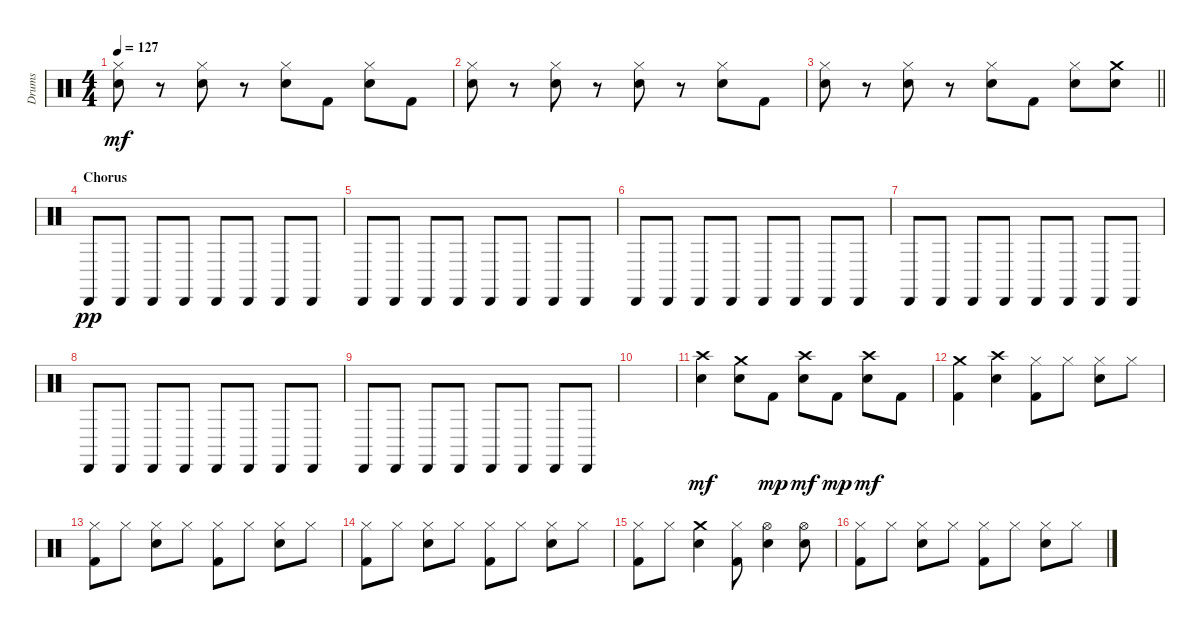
\track ("Drums" "Drums") {instrument percussion}
\staff {score}
\articulation defaults
\ts (4 4)
\tempo 127
\clef neutral
\ks c
("Hi-Hat (closed)" "Electric Snare (hit)").8{dy mf} r.8 ("Hi-Hat (closed)" "Electric Snare (hit)").8 r.8 ("Hi-Hat (closed)" "Electric Snare (hit)").8 "Kick (hit) 2".8 ("Hi-Hat (closed)" "Electric Snare (hit)").8 "Kick (hit) 2".8 |
("Hi-Hat (closed)" "Electric Snare (hit)").8 r.8 ("Hi-Hat (closed)" "Electric Snare (hit)").8 r.8 ("Hi-Hat (closed)" "Electric Snare (hit)").8 r.8 ("Hi-Hat (closed)" "Electric Snare (hit)").8 "Kick (hit) 2".8 |
\barLineRight lightlight
("Hi-Hat (closed)" "Electric Snare (hit)").8 r.8 ("Hi-Hat (closed)" "Electric Snare (hit)").8 r.8 ("Hi-Hat (closed)" "Electric Snare (hit)").8 "Kick (hit) 2".8 ("Hi-Hat (closed)" "Electric Snare (hit)").8 ("Crash medium (hit)" "Electric Snare (hit)").8 |
\section ("" "Chorus")
"Cabasa (hit)".8{dy pp} "Cabasa (hit)".8 "Cabasa (hit)".8 "Cabasa (hit)".8 "Cabasa (hit)".8 "Cabasa (hit)".8 "Cabasa (hit)".8 "Cabasa (hit)".8 |
"Cabasa (hit)".8 "Cabasa (hit)".8 "Cabasa (hit)".8 "Cabasa (hit)".8 "Cabasa (hit)".8 "Cabasa (hit)".8 "Cabasa (hit)".8 "Cabasa (hit)".8 |
"Cabasa (hit)".8 "Cabasa (hit)".8 "Cabasa (hit)".8 "Cabasa (hit)".8 "Cabasa (hit)".8 "Cabasa (hit)".8 "Cabasa (hit)".8 "Cabasa (hit)".8 |
"Cabasa (hit)".8 "Cabasa (hit)".8 "Cabasa (hit)".8 "Cabasa (hit)".8 "Cabasa (hit)".8 "Cabasa (hit)".8 "Cabasa (hit)".8 "Cabasa (hit)".8 |
"Cabasa (hit)".8 "Cabasa (hit)".8 "Cabasa (hit)".8 "Cabasa (hit)".8 "Cabasa (hit)".8 "Cabasa (hit)".8 "Cabasa (hit)".8 "Cabasa (hit)".8 |
"Cabasa (hit)".8 "Cabasa (hit)".8 "Cabasa (hit)".8 "Cabasa (hit)".8 "Cabasa (hit)".8 "Cabasa (hit)".8 "Cabasa (hit)".8 "Cabasa (hit)".8 |
|
("Crash high (hit)" "Electric Snare (hit)").4{dy mf} ("Crash medium (hit)" "Electric Snare (hit)").8 "Kick (hit) 2".8{dy mp} ("Crash high (hit)" "Electric Snare (hit)").8{dy mf} "Kick (hit) 2".8{dy mp} ("Crash high (hit)" "Electric Snare (hit)").8{dy mf} "Kick (hit) 2".8 |
("Crash medium (hit)" "Kick (hit) 2").4 ("Crash high (hit)" "Electric Snare (hit)").4 ("Hi-Hat (closed)" "Kick (hit) 2").8 "Hi-Hat (closed)".8 ("Hi-Hat (closed)" "Electric Snare (hit)").8 "Hi-Hat (closed)".8 |
("Hi-Hat (closed)" "Kick (hit) 2").8 "Hi-Hat (closed)".8 ("Hi-Hat (closed)" "Electric Snare (hit)").8 "Hi-Hat (closed)".8 ("Hi-Hat (closed)" "Kick (hit) 2").8 "Hi-Hat (closed)".8 ("Hi-Hat (closed)" "Electric Snare (hit)").8 "Hi-Hat (closed)".8 |
("Hi-Hat (closed)" "Kick (hit) 2").8 "Hi-Hat (closed)".8 ("Hi-Hat (closed)" "Electric Snare (hit)").8 "Hi-Hat (closed)".8 ("Hi-Hat (closed)" "Kick (hit) 2").8 "Hi-Hat (closed)".8 ("Hi-Hat (closed)" "Electric Snare (hit)").8 "Hi-Hat (closed)".8 |
("Hi-Hat (closed)" "Kick (hit) 2").8 "Hi-Hat (closed)".8 ("Crash medium (hit)" "Electric Snare (hit)").4 ("Hi-Hat (closed)" "Kick (hit) 2").8 ("Hi-Hat (open)" "Electric Snare (hit)").4 ("Hi-Hat (open)" "Electric Snare (hit)").8 |
("Hi-Hat (closed)" "Kick (hit) 2").8 "Hi-Hat (closed)".8 ("Hi-Hat (closed)" "Electric Snare (hit)").8 "Hi-Hat (closed)".8 ("Hi-Hat (closed)" "Kick (hit) 2").8 "Hi-Hat (closed)".8 ("Hi-Hat (closed)" "Electric Snare (hit)").8 "Hi-Hat (closed)".8
